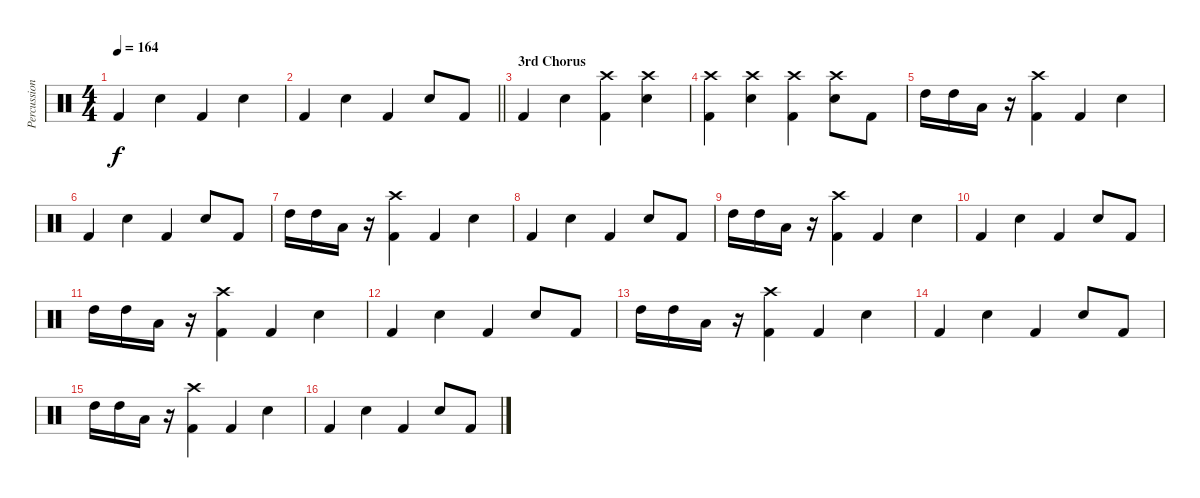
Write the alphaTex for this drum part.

\track ("Percussions" "Percussion") {instrument percussion}
\staff {score}
\articulation defaults
\ts (4 4)
\tempo 164
\clef neutral
\ks c "Kick (hit) 2".4{dy f} "Electric Snare (hit)".4 "Kick (hit) 2".4 "Electric Snare (hit)".4
|
\barLineRight lightlight "Kick (hit) 2".4 "Electric Snare (hit)".4 "Kick (hit) 2".4 "Electric Snare (hit)".8 "Kick (hit) 2".8
|
\section ("" "3rd Chorus")
"Kick (hit) 2".4 "Electric Snare (hit)".4 ("Crash high (hit)" "Kick (hit) 2").4 ("Crash high (hit)" "Electric Snare (hit)").4 |
("Crash high (hit)" "Kick (hit) 2").4 ("Crash high (hit)" "Electric Snare (hit)").4 ("Crash high (hit)" "Kick (hit) 2").4 ("Crash high (hit)" "Electric Snare (hit)").8 "Kick (hit) 2".8 |
"High Tom (hit)".16 "High Tom (hit)".16 "Low Tom (hit)".16 r.16 ("Crash high (hit)" "Kick (hit) 2").4 "Kick (hit) 2".4 "Electric Snare (hit)".4 |
"Kick (hit) 2".4 "Electric Snare (hit)".4 "Kick (hit) 2".4 "Electric Snare (hit)".8 "Kick (hit) 2".8 |
"High Tom (hit)".16 "High Tom (hit)".16 "Low Tom (hit)".16 r.16 ("Crash high (hit)" "Kick (hit) 2").4 "Kick (hit) 2".4 "Electric Snare (hit)".4 |
"Kick (hit) 2".4 "Electric Snare (hit)".4 "Kick (hit) 2".4 "Electric Snare (hit)".8 "Kick (hit) 2".8 |
"High Tom (hit)".16 "High Tom (hit)".16 "Low Tom (hit)".16 r.16 ("Crash high (hit)" "Kick (hit) 2").4 "Kick (hit) 2".4 "Electric Snare (hit)".4 |
"Kick (hit) 2".4 "Electric Snare (hit)".4 "Kick (hit) 2".4 "Electric Snare (hit)".8 "Kick (hit) 2".8 |
"High Tom (hit)".16 "High Tom (hit)".16 "Low Tom (hit)".16 r.16 ("Crash high (hit)" "Kick (hit) 2").4 "Kick (hit) 2".4 "Electric Snare (hit)".4 |
"Kick (hit) 2".4 "Electric Snare (hit)".4 "Kick (hit) 2".4 "Electric Snare (hit)".8 "Kick (hit) 2".8 |
"High Tom (hit)".16 "High Tom (hit)".16 "Low Tom (hit)".16 r.16 ("Crash high (hit)" "Kick (hit) 2").4 "Kick (hit) 2".4 "Electric Snare (hit)".4 |
"Kick (hit) 2".4 "Electric Snare (hit)".4 "Kick (hit) 2".4 "Electric Snare (hit)".8 "Kick (hit) 2".8 |
"High Tom (hit)".16 "High Tom (hit)".16 "Low Tom (hit)".16 r.16 ("Crash high (hit)" "Kick (hit) 2").4 "Kick (hit) 2".4 "Electric Snare (hit)".4 |
"Kick (hit) 2".4 "Electric Snare (hit)".4 "Kick (hit) 2".4 "Electric Snare (hit)".8 "Kick (hit) 2".8
